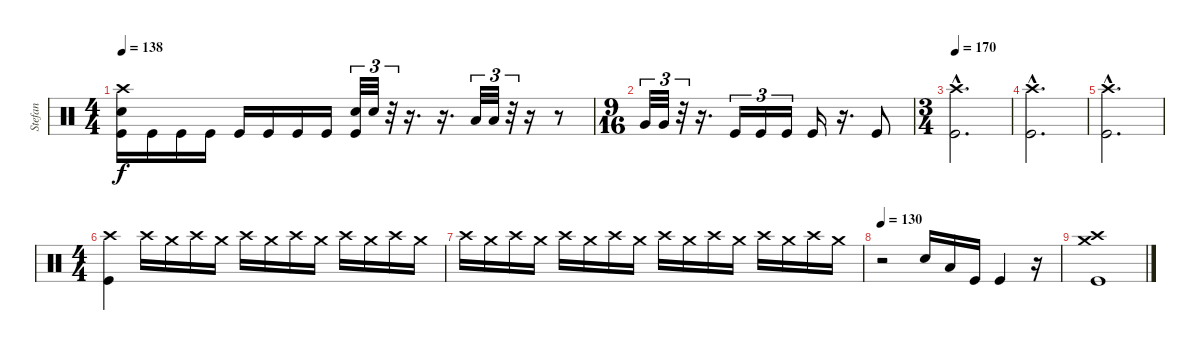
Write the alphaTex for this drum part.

\track ("Stefan" "Stefan") {instrument percussion}
\staff {score}
\articulation defaults
\ts (4 4)
\tempo 138
\clef neutral
\ks c
("Crash high (hit)" "Snare (hit) 2" "Kick (hit)").16{dy f} "Kick (hit)".16 "Kick (hit)".16 "Kick (hit)".16 "Kick (hit)".16 "Kick (hit)".16 "Kick (hit)".16 "Kick (hit)".16 ("Kick (hit)" "Snare (hit) 2").32{tu (3 2)} "Snare (hit) 2".32{tu (3 2)} r.32{tu (3 2)} r.16{d} r.16{d} "Low Tom (hit)".32{tu (3 2)} "Low Tom (hit)".32{tu (3 2)} r.32{tu (3 2)} r.16 r.8 |
\ts (9 16)
"Very Low Tom (hit)".32{tu (3 2)} "Very Low Tom (hit)".32{tu (3 2)} r.32{tu (3 2)} r.16{d} "Kick (hit)".16{tu (3 2)} "Kick (hit)".16{tu (3 2)} "Kick (hit)".16{tu (3 2)} "Kick (hit)".16 r.16{d} "Kick (hit)".8 |
\ts (3 4)
\tempo 170
("Kick (hit)"{hac} "Crash high (hit)"{hac}).2{d} |
("Kick (hit)"{hac} "Crash high (hit)"{hac}).2{d} |
("Kick (hit)"{hac} "Crash high (hit)"{hac}).2{d} |
\ts (4 4)
("Kick (hit)" "Crash high (hit)").4 "Crash high (hit)".16 "Crash medium (hit)".16 "Crash high (hit)".16 "Crash medium (hit)".16 "Crash high (hit)".16 "Crash medium (hit)".16 "Crash high (hit)".16 "Crash medium (hit)".16 "Crash high (hit)".16 "Crash medium (hit)".16 "Crash high (hit)".16 "Crash medium (hit)".16 |
"Crash high (hit)".16 "Crash medium (hit)".16 "Crash high (hit)".16 "Crash medium (hit)".16 "Crash high (hit)".16 "Crash medium (hit)".16 "Crash high (hit)".16 "Crash medium (hit)".16 "Crash high (hit)".16 "Crash medium (hit)".16 "Crash high (hit)".16 "Crash medium (hit)".16 "Crash high (hit)".16 "Crash medium (hit)".16 "Crash high (hit)".16 "Crash medium (hit)".16 |
\tempo 130
r.2 "Snare (hit) 2".16 "Low Tom (hit)".16 "Kick (hit)".16 "Kick (hit)".4 r.16 |
("Crash medium (hit)" "Kick (hit)" "Crash high (hit)").1
